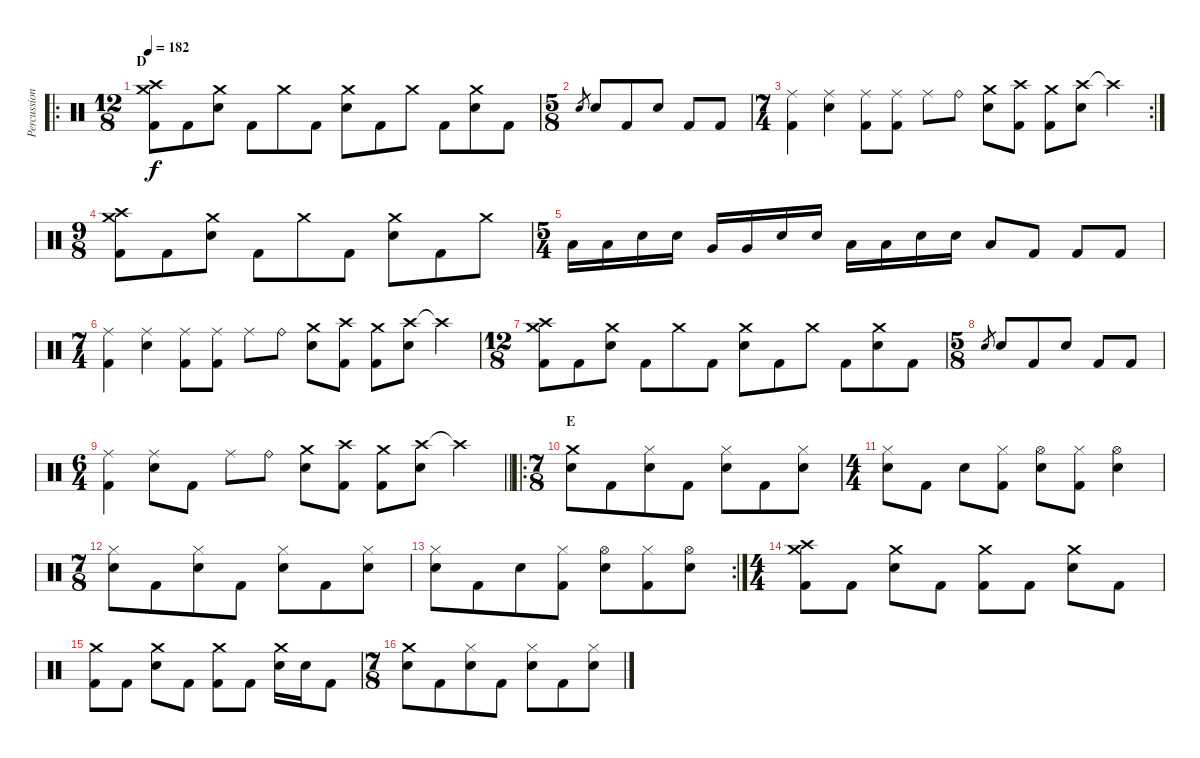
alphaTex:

\track ("Percussion" "Percussion") {instrument percussion}
\staff {score}
\articulation defaults
\ro
\ts (12 8)
\section ("" "D")
\tempo 182
\clef neutral
\ks c
("Crash medium (hit)" "Crash high (hit)" "Kick (hit) 2").8{dy f} "Kick (hit) 2".8 ("Crash medium (hit)" "Electric Snare (hit)").8 "Kick (hit) 2".8 "Crash medium (hit)".8 "Kick (hit) 2".8 ("Crash medium (hit)" "Electric Snare (hit)").8 "Kick (hit) 2".8 "Crash medium (hit)".8 "Kick (hit) 2".8 ("Crash medium (hit)" "Electric Snare (hit)").8 "Kick (hit) 2".8 |
\ts (5 8)
"Electric Snare (hit)".8{gr} "Electric Snare (hit)".8 "Kick (hit) 2".8 "Electric Snare (hit)".8 "Kick (hit) 2".8 "Kick (hit) 2".8 |
\rc 2
\ts (7 4)
("Ride (middle)" "Kick (hit) 2").4 ("Ride (middle)" "Electric Snare (hit)").4 ("Ride (middle)" "Kick (hit) 2").8 ("Ride (middle)" "Kick (hit) 2").8 "Ride (middle)".8 "Ride (bell)".8 ("Crash medium (hit)" "Electric Snare (hit)").8 ("Crash high (hit)" "Kick (hit) 2").8 ("Crash medium (hit)" "Kick (hit) 2").8 ("Crash high (hit)" "Electric Snare (hit)").8 "Crash high (hit)"{t}.4 |
\ts (9 8)
("Crash medium (hit)" "Crash high (hit)" "Kick (hit) 2").8 "Kick (hit) 2".8 ("Crash medium (hit)" "Electric Snare (hit)").8 "Kick (hit) 2".8 "Crash medium (hit)".8 "Kick (hit) 2".8 ("Crash medium (hit)" "Electric Snare (hit)").8 "Kick (hit) 2".8 "Crash medium (hit)".8 |
\ts (5 4)
"Low Tom (hit)".16 "Low Tom (hit)".16 "Electric Snare (hit)".16 "Electric Snare (hit)".16 "Very Low Tom (hit)".16 "Very Low Tom (hit)".16 "Electric Snare (hit)".16 "Electric Snare (hit)".16 "Low Floor Tom (hit)".16 "Low Floor Tom (hit)".16 "Electric Snare (hit)".16 "Electric Snare (hit)".16 "Low Floor Tom (hit)".8 "Kick (hit) 2".8 "Kick (hit) 2".8 "Kick (hit) 2".8 |
\ts (7 4)
("Ride (middle)" "Kick (hit) 2").4 ("Ride (middle)" "Electric Snare (hit)").4 ("Ride (middle)" "Kick (hit) 2").8 ("Ride (middle)" "Kick (hit) 2").8 "Ride (middle)".8 "Ride (bell)".8 ("Crash medium (hit)" "Electric Snare (hit)").8 ("Crash high (hit)" "Kick (hit) 2").8 ("Crash medium (hit)" "Kick (hit) 2").8 ("Crash high (hit)" "Electric Snare (hit)").8 "Crash high (hit)"{t}.4 |
\ts (12 8)
("Crash medium (hit)" "Crash high (hit)" "Kick (hit) 2").8 "Kick (hit) 2".8 ("Crash medium (hit)" "Electric Snare (hit)").8 "Kick (hit) 2".8 "Crash medium (hit)".8 "Kick (hit) 2".8 ("Crash medium (hit)" "Electric Snare (hit)").8 "Kick (hit) 2".8 "Crash medium (hit)".8 "Kick (hit) 2".8 ("Crash medium (hit)" "Electric Snare (hit)").8 "Kick (hit) 2".8 |
\ts (5 8)
"Electric Snare (hit)".8{gr} "Electric Snare (hit)".8 "Kick (hit) 2".8 "Electric Snare (hit)".8 "Kick (hit) 2".8 "Kick (hit) 2".8 |
\ts (6 4)
\barLineRight lightlight
("Ride (middle)" "Kick (hit) 2").4 ("Ride (middle)" "Electric Snare (hit)").8 "Kick (hit) 2".8 "Ride (middle)".8 "Ride (bell)".8 ("Crash medium (hit)" "Electric Snare (hit)").8 ("Crash high (hit)" "Kick (hit) 2").8 ("Crash medium (hit)" "Kick (hit) 2").8 ("Crash high (hit)" "Electric Snare (hit)").8 "Crash high (hit)"{t}.4 |
\ro
\ts (7 8)
\section ("" "E")
("Crash medium (hit)" "Electric Snare (hit)").8 "Kick (hit) 2".8 ("Hi-Hat (closed)" "Electric Snare (hit)").8 "Kick (hit) 2".8 ("Hi-Hat (closed)" "Electric Snare (hit)").8 "Kick (hit) 2".8 ("Hi-Hat (closed)" "Electric Snare (hit)").8 |
\ts (4 4)
("Hi-Hat (closed)" "Electric Snare (hit)").8 "Kick (hit) 2".8 "Electric Snare (hit)".8 ("Hi-Hat (closed)" "Kick (hit) 2").8 ("Hi-Hat (open)" "Electric Snare (hit)").8 ("Hi-Hat (closed)" "Kick (hit) 2").8 ("Hi-Hat (open)" "Electric Snare (hit)").4 |
\ts (7 8)
("Hi-Hat (closed)" "Electric Snare (hit)").8 "Kick (hit) 2".8 ("Hi-Hat (closed)" "Electric Snare (hit)").8 "Kick (hit) 2".8 ("Hi-Hat (closed)" "Electric Snare (hit)").8 "Kick (hit) 2".8 ("Hi-Hat (closed)" "Electric Snare (hit)").8 |
\rc 2
("Hi-Hat (closed)" "Electric Snare (hit)").8 "Kick (hit) 2".8 "Electric Snare (hit)".8 ("Hi-Hat (closed)" "Kick (hit) 2").8 ("Hi-Hat (open)" "Electric Snare (hit)").8 ("Hi-Hat (closed)" "Kick (hit) 2").8 ("Hi-Hat (open)" "Electric Snare (hit)").8 |
\ts (4 4)
("Crash medium (hit)" "Crash high (hit)" "Kick (hit) 2").8 "Kick (hit) 2".8 ("Crash medium (hit)" "Electric Snare (hit)").8 "Kick (hit) 2".8 ("Crash medium (hit)" "Kick (hit) 2").8 "Kick (hit) 2".8 ("Crash medium (hit)" "Electric Snare (hit)").8 "Kick (hit) 2".8 |
("Crash medium (hit)" "Kick (hit) 2").8 "Kick (hit) 2".8 ("Crash medium (hit)" "Electric Snare (hit)").8 "Kick (hit) 2".8 ("Crash medium (hit)" "Kick (hit) 2").8 "Kick (hit) 2".8 ("Crash medium (hit)" "Electric Snare (hit)").16 "Electric Snare (hit)".16 "Kick (hit) 2".8 |
\ts (7 8)
("Crash medium (hit)" "Electric Snare (hit)").8 "Kick (hit) 2".8 ("Hi-Hat (closed)" "Electric Snare (hit)").8 "Kick (hit) 2".8 ("Hi-Hat (closed)" "Electric Snare (hit)").8 "Kick (hit) 2".8 ("Hi-Hat (closed)" "Electric Snare (hit)").8
